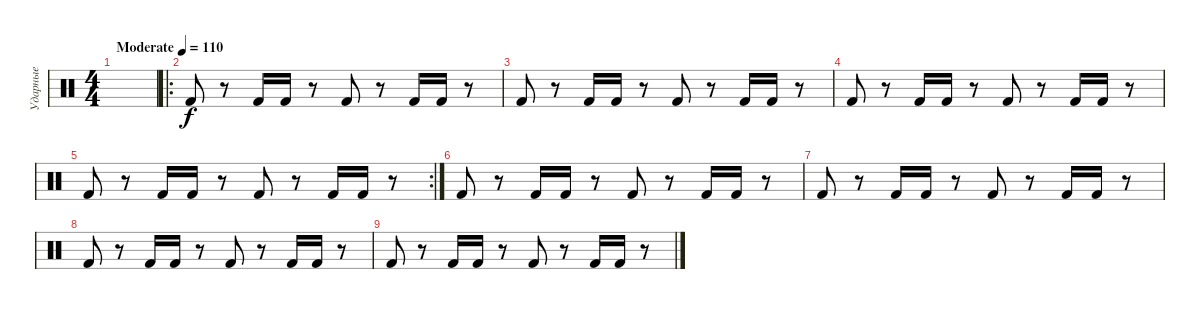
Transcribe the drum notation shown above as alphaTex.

\track ("Ударные" "Ударные") {instrument percussion}
\staff {score}
\articulation defaults
\ts (4 4)
\tempo (110 "Moderate")
\clef neutral
\ks c
|
\ro "Kick (hit) 2".8
r.8 "Kick (hit) 2".16 "Kick (hit) 2".16 r.8 "Kick (hit) 2".8 r.8 "Kick (hit) 2".16 "Kick (hit) 2".16 r.8 |
"Kick (hit) 2".8 r.8 "Kick (hit) 2".16 "Kick (hit) 2".16 r.8 "Kick (hit) 2".8 r.8 "Kick (hit) 2".16 "Kick (hit) 2".16 r.8 |
"Kick (hit) 2".8 r.8 "Kick (hit) 2".16 "Kick (hit) 2".16 r.8 "Kick (hit) 2".8 r.8 "Kick (hit) 2".16 "Kick (hit) 2".16 r.8 |
\rc 2 "Kick (hit) 2".8
r.8 "Kick (hit) 2".16 "Kick (hit) 2".16 r.8 "Kick (hit) 2".8 r.8 "Kick (hit) 2".16 "Kick (hit) 2".16 r.8 |
"Kick (hit) 2".8 r.8 "Kick (hit) 2".16 "Kick (hit) 2".16 r.8 "Kick (hit) 2".8 r.8 "Kick (hit) 2".16 "Kick (hit) 2".16 r.8 |
"Kick (hit) 2".8 r.8 "Kick (hit) 2".16 "Kick (hit) 2".16 r.8 "Kick (hit) 2".8 r.8 "Kick (hit) 2".16 "Kick (hit) 2".16 r.8 |
"Kick (hit) 2".8 r.8 "Kick (hit) 2".16 "Kick (hit) 2".16 r.8 "Kick (hit) 2".8 r.8 "Kick (hit) 2".16 "Kick (hit) 2".16 r.8 |
"Kick (hit) 2".8 r.8 "Kick (hit) 2".16 "Kick (hit) 2".16 r.8 "Kick (hit) 2".8 r.8 "Kick (hit) 2".16 "Kick (hit) 2".16 r.8
